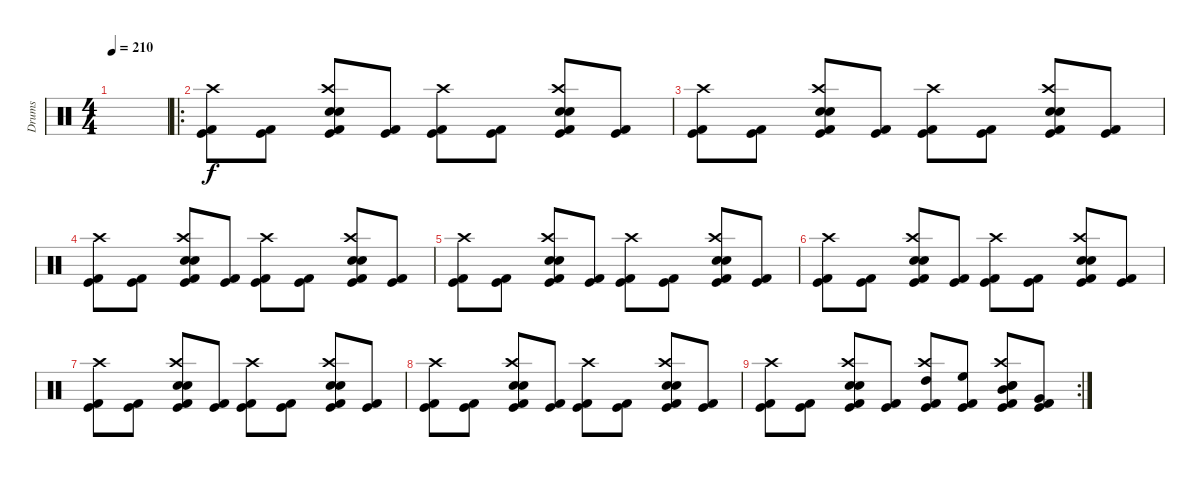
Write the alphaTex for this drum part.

\track ("Drums" "Drums") {instrument percussion}
\staff {score}
\articulation defaults
\ts (4 4)
\tempo 210
\clef neutral
\ks c
|
\ro
("Kick (hit)" "Kick (hit) 2" "Crash high (hit)").8 ("Kick (hit)" "Kick (hit) 2").8 ("Kick (hit)" "Kick (hit) 2" "Crash high (hit)" "Snare (hit) 2" "Electric Snare (hit)").8 ("Kick (hit)" "Kick (hit) 2").8 ("Kick (hit)" "Kick (hit) 2" "Crash high (hit)").8 ("Kick (hit)" "Kick (hit) 2").8 ("Kick (hit)" "Kick (hit) 2" "Crash high (hit)" "Snare (hit) 2" "Electric Snare (hit)").8 ("Kick (hit)" "Kick (hit) 2").8 |
("Kick (hit)" "Kick (hit) 2" "Crash high (hit)").8 ("Kick (hit)" "Kick (hit) 2").8 ("Kick (hit)" "Kick (hit) 2" "Crash high (hit)" "Snare (hit) 2" "Electric Snare (hit)").8 ("Kick (hit)" "Kick (hit) 2").8 ("Kick (hit)" "Kick (hit) 2" "Crash high (hit)").8 ("Kick (hit)" "Kick (hit) 2").8 ("Kick (hit)" "Kick (hit) 2" "Crash high (hit)" "Snare (hit) 2" "Electric Snare (hit)").8 ("Kick (hit)" "Kick (hit) 2").8 |
("Kick (hit)" "Kick (hit) 2" "Crash high (hit)").8 ("Kick (hit)" "Kick (hit) 2").8 ("Kick (hit)" "Kick (hit) 2" "Crash high (hit)" "Snare (hit) 2" "Electric Snare (hit)").8 ("Kick (hit)" "Kick (hit) 2").8 ("Kick (hit)" "Kick (hit) 2" "Crash high (hit)").8 ("Kick (hit)" "Kick (hit) 2").8 ("Kick (hit)" "Kick (hit) 2" "Crash high (hit)" "Snare (hit) 2" "Electric Snare (hit)").8 ("Kick (hit)" "Kick (hit) 2").8 |
("Kick (hit)" "Kick (hit) 2" "Crash high (hit)").8 ("Kick (hit)" "Kick (hit) 2").8 ("Kick (hit)" "Kick (hit) 2" "Crash high (hit)" "Snare (hit) 2" "Electric Snare (hit)").8 ("Kick (hit)" "Kick (hit) 2").8 ("Kick (hit)" "Kick (hit) 2" "Crash high (hit)").8 ("Kick (hit)" "Kick (hit) 2").8 ("Kick (hit)" "Kick (hit) 2" "Crash high (hit)" "Snare (hit) 2" "Electric Snare (hit)").8 ("Kick (hit)" "Kick (hit) 2").8 |
("Kick (hit)" "Kick (hit) 2" "Crash high (hit)").8 ("Kick (hit)" "Kick (hit) 2").8 ("Kick (hit)" "Kick (hit) 2" "Crash high (hit)" "Snare (hit) 2" "Electric Snare (hit)").8 ("Kick (hit)" "Kick (hit) 2").8 ("Kick (hit)" "Kick (hit) 2" "Crash high (hit)").8 ("Kick (hit)" "Kick (hit) 2").8 ("Kick (hit)" "Kick (hit) 2" "Crash high (hit)" "Snare (hit) 2" "Electric Snare (hit)").8 ("Kick (hit)" "Kick (hit) 2").8 |
("Kick (hit)" "Kick (hit) 2" "Crash high (hit)").8 ("Kick (hit)" "Kick (hit) 2").8 ("Kick (hit)" "Kick (hit) 2" "Crash high (hit)" "Snare (hit) 2" "Electric Snare (hit)").8 ("Kick (hit)" "Kick (hit) 2").8 ("Kick (hit)" "Kick (hit) 2" "Crash high (hit)").8 ("Kick (hit)" "Kick (hit) 2").8 ("Kick (hit)" "Kick (hit) 2" "Crash high (hit)" "Snare (hit) 2" "Electric Snare (hit)").8 ("Kick (hit)" "Kick (hit) 2").8 |
("Kick (hit)" "Kick (hit) 2" "Crash high (hit)").8 ("Kick (hit)" "Kick (hit) 2").8 ("Kick (hit)" "Kick (hit) 2" "Crash high (hit)" "Snare (hit) 2" "Electric Snare (hit)").8 ("Kick (hit)" "Kick (hit) 2").8 ("Kick (hit)" "Kick (hit) 2" "Crash high (hit)").8 ("Kick (hit)" "Kick (hit) 2").8 ("Kick (hit)" "Kick (hit) 2" "Crash high (hit)" "Snare (hit) 2" "Electric Snare (hit)").8 ("Kick (hit)" "Kick (hit) 2").8 |
\rc 2
("Kick (hit)" "Kick (hit) 2" "Crash high (hit)").8 ("Kick (hit)" "Kick (hit) 2").8 ("Kick (hit)" "Kick (hit) 2" "Crash high (hit)" "Snare (hit) 2" "Electric Snare (hit)").8 ("Kick (hit)" "Kick (hit) 2").8 ("Kick (hit)" "Kick (hit) 2" "Crash high (hit)" "High Tom (hit)").8 ("Kick (hit)" "Kick (hit) 2" "High Floor Tom (hit)").8 ("Kick (hit)" "Kick (hit) 2" "Crash high (hit)" "Snare (hit) 2" "Electric Snare (hit)" "Mid Tom (hit)").8 ("Kick (hit)" "Kick (hit) 2" "Very Low Tom (hit)").8
